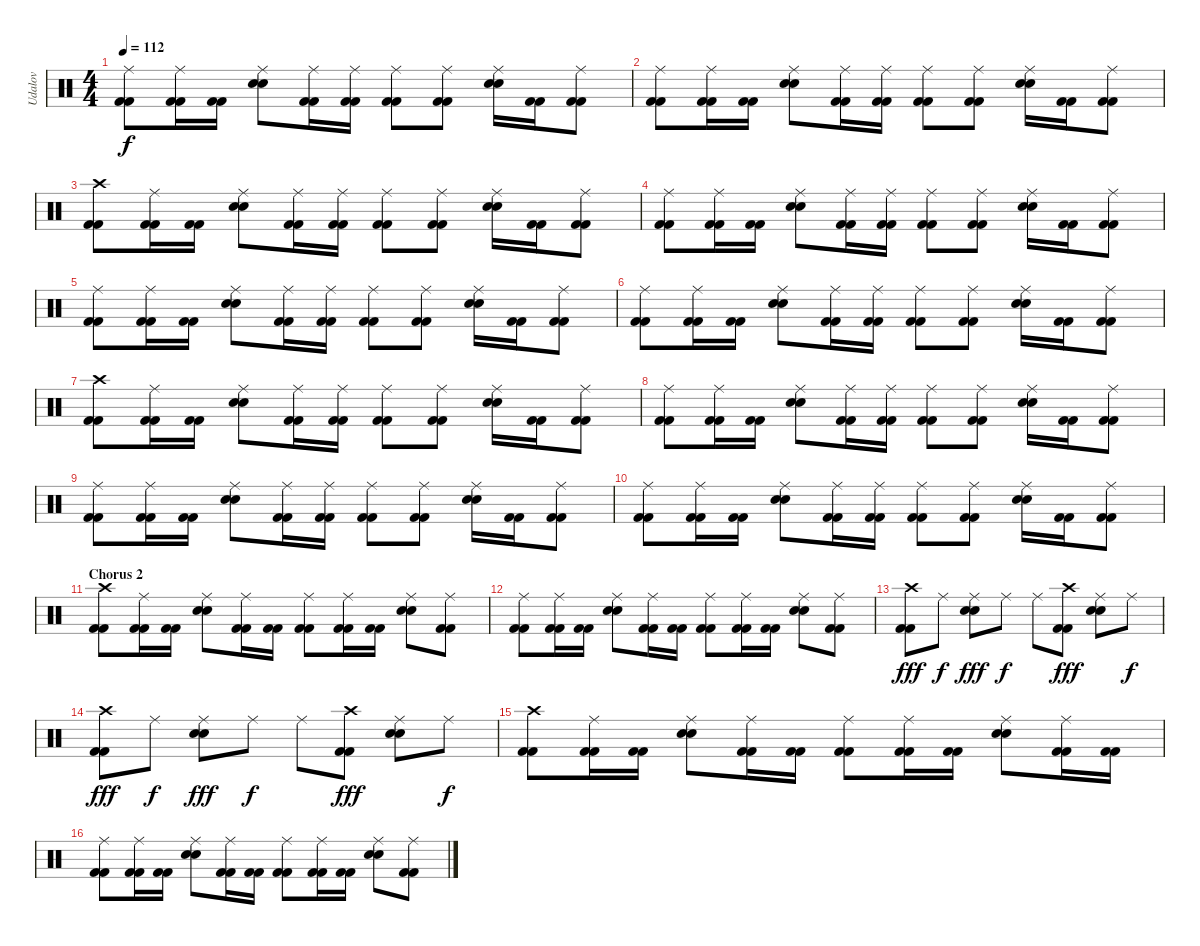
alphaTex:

\track ("Udalov" "Udalov") {instrument percussion}
\staff {score}
\articulation defaults
\ts (4 4)
\tempo 112
\clef neutral
\ks c
("Ride (middle)" "Kick (hit) 2" "Kick (hit) 2").8{dy f} ("Ride (middle)" "Kick (hit) 2" "Kick (hit) 2").16 ("Kick (hit) 2" "Kick (hit) 2").16 ("Ride (middle)" "Electric Snare (hit)" "Electric Snare (hit)").8 ("Ride (middle)" "Kick (hit) 2" "Kick (hit) 2").16 ("Ride (middle)" "Kick (hit) 2" "Kick (hit) 2").16 ("Ride (middle)" "Kick (hit) 2" "Kick (hit) 2").8 ("Ride (middle)" "Kick (hit) 2" "Kick (hit) 2").8 ("Ride (middle)" "Electric Snare (hit)" "Electric Snare (hit)").16 ("Kick (hit) 2" "Kick (hit) 2").16 ("Ride (middle)" "Kick (hit) 2" "Kick (hit) 2").8 |
("Ride (middle)" "Kick (hit) 2" "Kick (hit) 2").8 ("Ride (middle)" "Kick (hit) 2" "Kick (hit) 2").16 ("Kick (hit) 2" "Kick (hit) 2").16 ("Ride (middle)" "Electric Snare (hit)" "Electric Snare (hit)").8 ("Ride (middle)" "Kick (hit) 2" "Kick (hit) 2").16 ("Ride (middle)" "Kick (hit) 2" "Kick (hit) 2").16 ("Ride (middle)" "Kick (hit) 2" "Kick (hit) 2").8 ("Ride (middle)" "Kick (hit) 2" "Kick (hit) 2").8 ("Ride (middle)" "Electric Snare (hit)" "Electric Snare (hit)").16 ("Kick (hit) 2" "Kick (hit) 2").16 ("Ride (middle)" "Kick (hit) 2" "Kick (hit) 2").8 |
("Crash high (hit)" "Kick (hit) 2" "Kick (hit) 2").8 ("Ride (middle)" "Kick (hit) 2" "Kick (hit) 2").16 ("Kick (hit) 2" "Kick (hit) 2").16 ("Ride (middle)" "Electric Snare (hit)" "Electric Snare (hit)").8 ("Ride (middle)" "Kick (hit) 2" "Kick (hit) 2").16 ("Ride (middle)" "Kick (hit) 2" "Kick (hit) 2").16 ("Ride (middle)" "Kick (hit) 2" "Kick (hit) 2").8 ("Ride (middle)" "Kick (hit) 2" "Kick (hit) 2").8 ("Ride (middle)" "Electric Snare (hit)" "Electric Snare (hit)").16 ("Kick (hit) 2" "Kick (hit) 2").16 ("Ride (middle)" "Kick (hit) 2" "Kick (hit) 2").8 |
("Ride (middle)" "Kick (hit) 2" "Kick (hit) 2").8 ("Ride (middle)" "Kick (hit) 2" "Kick (hit) 2").16 ("Kick (hit) 2" "Kick (hit) 2").16 ("Ride (middle)" "Electric Snare (hit)" "Electric Snare (hit)").8 ("Ride (middle)" "Kick (hit) 2" "Kick (hit) 2").16 ("Ride (middle)" "Kick (hit) 2" "Kick (hit) 2").16 ("Ride (middle)" "Kick (hit) 2" "Kick (hit) 2").8 ("Ride (middle)" "Kick (hit) 2" "Kick (hit) 2").8 ("Ride (middle)" "Electric Snare (hit)" "Electric Snare (hit)").16 ("Kick (hit) 2" "Kick (hit) 2").16 ("Ride (middle)" "Kick (hit) 2" "Kick (hit) 2").8 |
("Ride (middle)" "Kick (hit) 2" "Kick (hit) 2").8 ("Ride (middle)" "Kick (hit) 2" "Kick (hit) 2").16 ("Kick (hit) 2" "Kick (hit) 2").16 ("Ride (middle)" "Electric Snare (hit)" "Electric Snare (hit)").8 ("Ride (middle)" "Kick (hit) 2" "Kick (hit) 2").16 ("Ride (middle)" "Kick (hit) 2" "Kick (hit) 2").16 ("Ride (middle)" "Kick (hit) 2" "Kick (hit) 2").8 ("Ride (middle)" "Kick (hit) 2" "Kick (hit) 2").8 ("Ride (middle)" "Electric Snare (hit)" "Electric Snare (hit)").16 ("Kick (hit) 2" "Kick (hit) 2").16 ("Ride (middle)" "Kick (hit) 2" "Kick (hit) 2").8 |
("Ride (middle)" "Kick (hit) 2" "Kick (hit) 2").8 ("Ride (middle)" "Kick (hit) 2" "Kick (hit) 2").16 ("Kick (hit) 2" "Kick (hit) 2").16 ("Ride (middle)" "Electric Snare (hit)" "Electric Snare (hit)").8 ("Ride (middle)" "Kick (hit) 2" "Kick (hit) 2").16 ("Ride (middle)" "Kick (hit) 2" "Kick (hit) 2").16 ("Ride (middle)" "Kick (hit) 2" "Kick (hit) 2").8 ("Ride (middle)" "Kick (hit) 2" "Kick (hit) 2").8 ("Ride (middle)" "Electric Snare (hit)" "Electric Snare (hit)").16 ("Kick (hit) 2" "Kick (hit) 2").16 ("Ride (middle)" "Kick (hit) 2" "Kick (hit) 2").8 |
("Crash high (hit)" "Kick (hit) 2" "Kick (hit) 2").8 ("Ride (middle)" "Kick (hit) 2" "Kick (hit) 2").16 ("Kick (hit) 2" "Kick (hit) 2").16 ("Ride (middle)" "Electric Snare (hit)" "Electric Snare (hit)").8 ("Ride (middle)" "Kick (hit) 2" "Kick (hit) 2").16 ("Ride (middle)" "Kick (hit) 2" "Kick (hit) 2").16 ("Ride (middle)" "Kick (hit) 2" "Kick (hit) 2").8 ("Ride (middle)" "Kick (hit) 2" "Kick (hit) 2").8 ("Ride (middle)" "Electric Snare (hit)" "Electric Snare (hit)").16 ("Kick (hit) 2" "Kick (hit) 2").16 ("Ride (middle)" "Kick (hit) 2" "Kick (hit) 2").8 |
("Ride (middle)" "Kick (hit) 2" "Kick (hit) 2").8 ("Ride (middle)" "Kick (hit) 2" "Kick (hit) 2").16 ("Kick (hit) 2" "Kick (hit) 2").16 ("Ride (middle)" "Electric Snare (hit)" "Electric Snare (hit)").8 ("Ride (middle)" "Kick (hit) 2" "Kick (hit) 2").16 ("Ride (middle)" "Kick (hit) 2" "Kick (hit) 2").16 ("Ride (middle)" "Kick (hit) 2" "Kick (hit) 2").8 ("Ride (middle)" "Kick (hit) 2" "Kick (hit) 2").8 ("Ride (middle)" "Electric Snare (hit)" "Electric Snare (hit)").16 ("Kick (hit) 2" "Kick (hit) 2").16 ("Ride (middle)" "Kick (hit) 2" "Kick (hit) 2").8 |
("Ride (middle)" "Kick (hit) 2" "Kick (hit) 2").8 ("Ride (middle)" "Kick (hit) 2" "Kick (hit) 2").16 ("Kick (hit) 2" "Kick (hit) 2").16 ("Ride (middle)" "Electric Snare (hit)" "Electric Snare (hit)").8 ("Ride (middle)" "Kick (hit) 2" "Kick (hit) 2").16 ("Ride (middle)" "Kick (hit) 2" "Kick (hit) 2").16 ("Ride (middle)" "Kick (hit) 2" "Kick (hit) 2").8 ("Ride (middle)" "Kick (hit) 2" "Kick (hit) 2").8 ("Ride (middle)" "Electric Snare (hit)" "Electric Snare (hit)").16 ("Kick (hit) 2" "Kick (hit) 2").16 ("Ride (middle)" "Kick (hit) 2" "Kick (hit) 2").8 |
("Ride (middle)" "Kick (hit) 2" "Kick (hit) 2").8 ("Ride (middle)" "Kick (hit) 2" "Kick (hit) 2").16 ("Kick (hit) 2" "Kick (hit) 2").16 ("Ride (middle)" "Electric Snare (hit)" "Electric Snare (hit)").8 ("Ride (middle)" "Kick (hit) 2" "Kick (hit) 2").16 ("Ride (middle)" "Kick (hit) 2" "Kick (hit) 2").16 ("Ride (middle)" "Kick (hit) 2" "Kick (hit) 2").8 ("Ride (middle)" "Kick (hit) 2" "Kick (hit) 2").8 ("Ride (middle)" "Electric Snare (hit)" "Electric Snare (hit)").16 ("Kick (hit) 2" "Kick (hit) 2").16 ("Ride (middle)" "Kick (hit) 2" "Kick (hit) 2").8 |
\section ("" "Chorus 2")
("Crash high (hit)" "Kick (hit) 2" "Kick (hit) 2").8 ("Ride (middle)" "Kick (hit) 2" "Kick (hit) 2").16 ("Kick (hit) 2" "Kick (hit) 2").16 ("Ride (middle)" "Electric Snare (hit)" "Electric Snare (hit)").8 ("Ride (middle)" "Kick (hit) 2" "Kick (hit) 2").16 ("Kick (hit) 2" "Kick (hit) 2").16 ("Ride (middle)" "Kick (hit) 2" "Kick (hit) 2").8 ("Ride (middle)" "Kick (hit) 2" "Kick (hit) 2").16 ("Kick (hit) 2" "Kick (hit) 2").16 ("Ride (middle)" "Electric Snare (hit)" "Electric Snare (hit)").8 ("Ride (middle)" "Kick (hit) 2" "Kick (hit) 2").8 |
("Ride (middle)" "Kick (hit) 2" "Kick (hit) 2").8 ("Ride (middle)" "Kick (hit) 2" "Kick (hit) 2").16 ("Kick (hit) 2" "Kick (hit) 2").16 ("Ride (middle)" "Electric Snare (hit)" "Electric Snare (hit)").8 ("Ride (middle)" "Kick (hit) 2" "Kick (hit) 2").16 ("Kick (hit) 2" "Kick (hit) 2").16 ("Ride (middle)" "Kick (hit) 2" "Kick (hit) 2").8 ("Ride (middle)" "Kick (hit) 2" "Kick (hit) 2").16 ("Kick (hit) 2" "Kick (hit) 2").16 ("Ride (middle)" "Electric Snare (hit)" "Electric Snare (hit)").8 ("Ride (middle)" "Kick (hit) 2" "Kick (hit) 2").8 |
("Crash high (hit)" "Kick (hit) 2" "Kick (hit) 2").8{dy fff} "Ride (middle)".8{dy f} ("Ride (middle)" "Electric Snare (hit)" "Electric Snare (hit)").8{dy fff} "Ride (middle)".8{dy f} "Ride (middle)".8 ("Crash high (hit)" "Kick (hit) 2" "Kick (hit) 2").8{dy fff} ("Ride (middle)" "Electric Snare (hit)" "Electric Snare (hit)").8 "Ride (middle)".8{dy f} |
("Crash high (hit)" "Kick (hit) 2" "Kick (hit) 2").8{dy fff} "Ride (middle)".8{dy f} ("Ride (middle)" "Electric Snare (hit)" "Electric Snare (hit)").8{dy fff} "Ride (middle)".8{dy f} "Ride (middle)".8 ("Crash high (hit)" "Kick (hit) 2" "Kick (hit) 2").8{dy fff} ("Ride (middle)" "Electric Snare (hit)" "Electric Snare (hit)").8 "Ride (middle)".8{dy f} |
("Crash high (hit)" "Kick (hit) 2" "Kick (hit) 2").8 ("Ride (middle)" "Kick (hit) 2" "Kick (hit) 2").16 ("Kick (hit) 2" "Kick (hit) 2").16 ("Ride (middle)" "Electric Snare (hit)" "Electric Snare (hit)").8 ("Ride (middle)" "Kick (hit) 2" "Kick (hit) 2").16 ("Kick (hit) 2" "Kick (hit) 2").16 ("Ride (middle)" "Kick (hit) 2" "Kick (hit) 2").8 ("Ride (middle)" "Kick (hit) 2" "Kick (hit) 2").16 ("Kick (hit) 2" "Kick (hit) 2").16 ("Ride (middle)" "Electric Snare (hit)" "Electric Snare (hit)").8 ("Ride (middle)" "Kick (hit) 2" "Kick (hit) 2").16 ("Kick (hit) 2" "Kick (hit) 2").16 |
("Ride (middle)" "Kick (hit) 2" "Kick (hit) 2").8 ("Ride (middle)" "Kick (hit) 2" "Kick (hit) 2").16 ("Kick (hit) 2" "Kick (hit) 2").16 ("Ride (middle)" "Electric Snare (hit)" "Electric Snare (hit)").8 ("Ride (middle)" "Kick (hit) 2" "Kick (hit) 2").16 ("Kick (hit) 2" "Kick (hit) 2").16 ("Ride (middle)" "Kick (hit) 2" "Kick (hit) 2").8 ("Ride (middle)" "Kick (hit) 2" "Kick (hit) 2").16 ("Kick (hit) 2" "Kick (hit) 2").16 ("Ride (middle)" "Electric Snare (hit)" "Electric Snare (hit)").8 ("Ride (middle)" "Kick (hit) 2" "Kick (hit) 2").8
